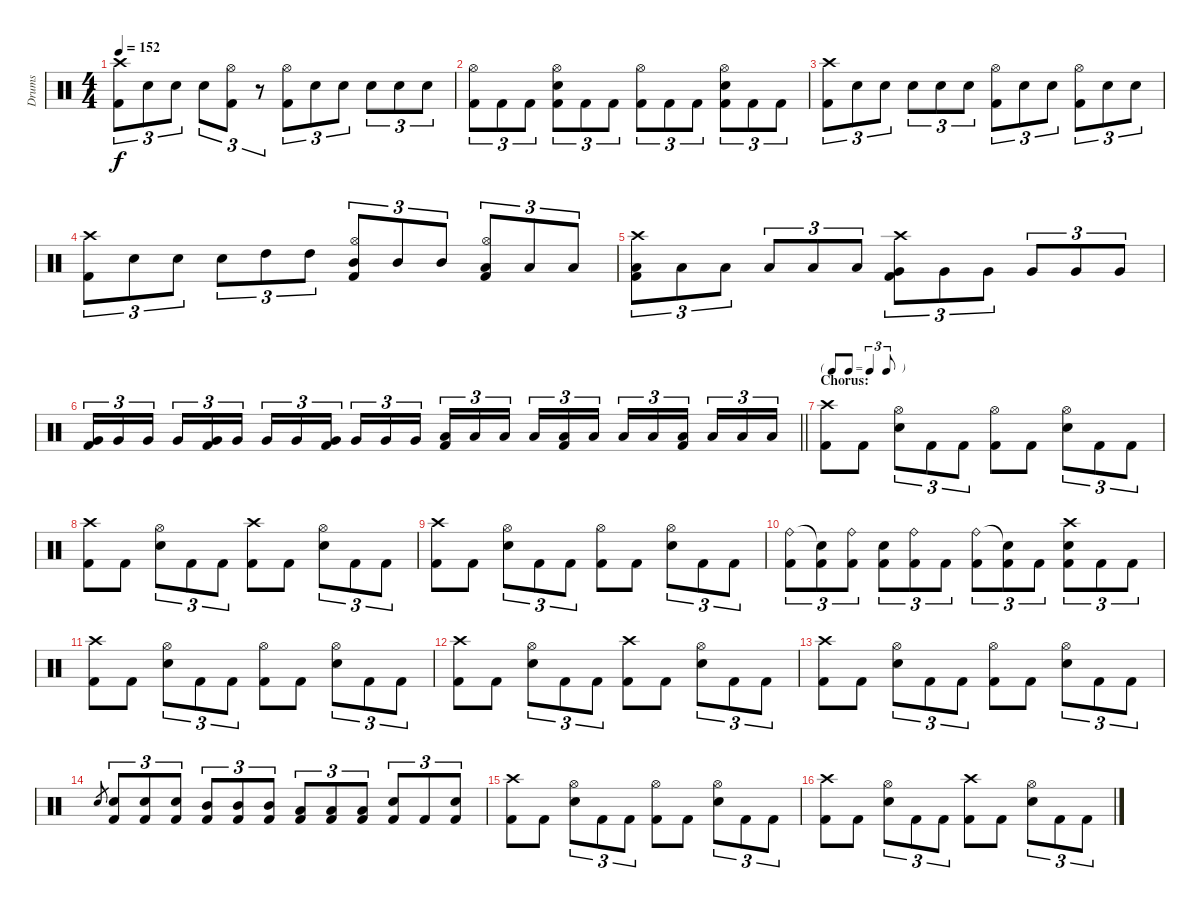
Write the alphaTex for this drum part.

\track ("Drums" "Drums") {instrument percussion}
\staff {score}
\articulation defaults
\ts (4 4)
\tempo 152
\clef neutral
\ks c
("Crash high (hit)" "Kick (hit) 2").8{tu (3 2) dy f} "Snare (hit) 2".8{tu (3 2)} "Snare (hit) 2".8{tu (3 2)} "Snare (hit) 2".8{tu (3 2)} ("Hi-Hat (open)" "Kick (hit) 2").8{tu (3 2)} r.8{tu (3 2)} ("Hi-Hat (open)" "Kick (hit) 2").8{tu (3 2)} "Snare (hit) 2".8{tu (3 2)} "Snare (hit) 2".8{tu (3 2)} "Snare (hit) 2".8{tu (3 2)} "Snare (hit) 2".8{tu (3 2)} "Snare (hit) 2".8{tu (3 2)} |
("Hi-Hat (open)" "Kick (hit) 2").8{tu (3 2)} "Kick (hit) 2".8{tu (3 2)} "Kick (hit) 2".8{tu (3 2)} ("Hi-Hat (open)" "Snare (hit) 2" "Kick (hit) 2").8{tu (3 2)} "Kick (hit) 2".8{tu (3 2)} "Kick (hit) 2".8{tu (3 2)} ("Hi-Hat (open)" "Kick (hit) 2").8{tu (3 2)} "Kick (hit) 2".8{tu (3 2)} "Kick (hit) 2".8{tu (3 2)} ("Hi-Hat (open)" "Snare (hit) 2" "Kick (hit) 2").8{tu (3 2)} "Kick (hit) 2".8{tu (3 2)} "Kick (hit) 2".8{tu (3 2)} |
("Crash high (hit)" "Kick (hit) 2").8{tu (3 2)} "Snare (hit) 2".8{tu (3 2)} "Snare (hit) 2".8{tu (3 2)} "Snare (hit) 2".8{tu (3 2)} "Snare (hit) 2".8{tu (3 2)} "Snare (hit) 2".8{tu (3 2)} ("Hi-Hat (open)" "Kick (hit) 2").8{tu (3 2)} "Snare (hit) 2".8{tu (3 2)} "Snare (hit) 2".8{tu (3 2)} ("Hi-Hat (open)" "Kick (hit) 2").8{tu (3 2)} "Snare (hit) 2".8{tu (3 2)} "Snare (hit) 2".8{tu (3 2)} |
("Crash high (hit)" "Kick (hit) 2").8{tu (3 2)} "Snare (hit) 2".8{tu (3 2)} "Snare (hit) 2".8{tu (3 2)} "Snare (hit) 2".8{tu (3 2)} "High Tom (hit)".8{tu (3 2)} "High Tom (hit)".8{tu (3 2)} ("Hi-Hat (open)" "Mid Tom (hit)" "Kick (hit) 2").8{tu (3 2)} "Mid Tom (hit)".8{tu (3 2)} "Mid Tom (hit)".8{tu (3 2)} ("Hi-Hat (open)" "Low Tom (hit)" "Kick (hit) 2").8{tu (3 2)} "Low Tom (hit)".8{tu (3 2)} "Low Tom (hit)".8{tu (3 2)} |
("Crash high (hit)" "Low Tom (hit)" "Kick (hit) 2").8{tu (3 2)} "Low Tom (hit)".8{tu (3 2)} "Low Tom (hit)".8{tu (3 2)} "Low Tom (hit)".8{tu (3 2)} "Low Tom (hit)".8{tu (3 2)} "Low Tom (hit)".8{tu (3 2)} ("Crash high (hit)" "Very Low Tom (hit)" "Kick (hit) 2").8{tu (3 2)} "Very Low Tom (hit)".8{tu (3 2)} "Very Low Tom (hit)".8{tu (3 2)} "Very Low Tom (hit)".8{tu (3 2)} "Very Low Tom (hit)".8{tu (3 2)} "Very Low Tom (hit)".8{tu (3 2)} |
\barLineRight lightlight
("Very Low Tom (hit)" "Kick (hit) 2").16{tu (3 2)} "Very Low Tom (hit)".16{tu (3 2)} "Very Low Tom (hit)".16{tu (3 2) beam splitsecondary} "Very Low Tom (hit)".16{tu (3 2)} ("Very Low Tom (hit)" "Kick (hit) 2").16{tu (3 2)} "Very Low Tom (hit)".16{tu (3 2)} "Very Low Tom (hit)".16{tu (3 2)} "Very Low Tom (hit)".16{tu (3 2)} ("Very Low Tom (hit)" "Kick (hit) 2").16{tu (3 2) beam splitsecondary} "Very Low Tom (hit)".16{tu (3 2)} "Very Low Tom (hit)".16{tu (3 2)} "Very Low Tom (hit)".16{tu (3 2)} ("Low Floor Tom (hit)" "Kick (hit) 2").16{tu (3 2)} "Low Floor Tom (hit)".16{tu (3 2)} "Low Floor Tom (hit)".16{tu (3 2) beam splitsecondary} "Low Floor Tom (hit)".16{tu (3 2)} ("Low Floor Tom (hit)" "Kick (hit) 2").16{tu (3 2)} "Low Floor Tom (hit)".16{tu (3 2)} "Low Floor Tom (hit)".16{tu (3 2)} "Low Floor Tom (hit)".16{tu (3 2)} ("Low Floor Tom (hit)" "Kick (hit) 2").16{tu (3 2) beam splitsecondary} "Low Floor Tom (hit)".16{tu (3 2)} "Low Floor Tom (hit)".16{tu (3 2)} "Low Floor Tom (hit)".16{tu (3 2)} |
\tf triplet8th
\section ("" "Chorus:")
("Crash high (hit)" "Kick (hit) 2").8 "Kick (hit) 2".8 ("Hi-Hat (open)" "Snare (hit) 2").8{tu (3 2)} "Kick (hit) 2".8{tu (3 2)} "Kick (hit) 2".8{tu (3 2)} ("Hi-Hat (open)" "Kick (hit) 2").8 "Kick (hit) 2".8 ("Hi-Hat (open)" "Snare (hit) 2").8{tu (3 2)} "Kick (hit) 2".8{tu (3 2)} "Kick (hit) 2".8{tu (3 2)} |
("Crash high (hit)" "Kick (hit) 2").8 "Kick (hit) 2".8 ("Hi-Hat (open)" "Snare (hit) 2").8{tu (3 2)} "Kick (hit) 2".8{tu (3 2)} "Kick (hit) 2".8{tu (3 2)} ("Crash high (hit)" "Kick (hit) 2").8 "Kick (hit) 2".8 ("Hi-Hat (open)" "Snare (hit) 2").8{tu (3 2)} "Kick (hit) 2".8{tu (3 2)} "Kick (hit) 2".8{tu (3 2)} |
("Crash high (hit)" "Kick (hit) 2").8 "Kick (hit) 2".8 ("Hi-Hat (open)" "Snare (hit) 2").8{tu (3 2)} "Kick (hit) 2".8{tu (3 2)} "Kick (hit) 2".8{tu (3 2)} ("Hi-Hat (open)" "Kick (hit) 2").8 "Kick (hit) 2".8 ("Hi-Hat (open)" "Snare (hit) 2").8{tu (3 2)} "Kick (hit) 2".8{tu (3 2)} "Kick (hit) 2".8{tu (3 2)} |
("Ride (bell)" "Kick (hit) 2").8{tu (3 2)} ("Snare (hit)"{t} "Kick (hit) 2").8{tu (3 2)} ("Ride (bell)" "Kick (hit) 2").8{tu (3 2)} ("Snare (hit) 2" "Kick (hit) 2").8{tu (3 2)} ("Ride (bell)" "Kick (hit) 2").8{tu (3 2)} "Kick (hit) 2".8{tu (3 2)} ("Ride (bell)" "Kick (hit) 2").8{tu (3 2)} ("Snare (hit)"{t} "Kick (hit) 2").8{tu (3 2)} "Kick (hit) 2".8{tu (3 2)} ("Crash high (hit)" "Snare (hit) 2" "Kick (hit) 2").8{tu (3 2)} "Kick (hit) 2".8{tu (3 2)} "Kick (hit) 2".8{tu (3 2)} |
("Crash high (hit)" "Kick (hit) 2").8 "Kick (hit) 2".8 ("Hi-Hat (open)" "Snare (hit) 2").8{tu (3 2)} "Kick (hit) 2".8{tu (3 2)} "Kick (hit) 2".8{tu (3 2)} ("Hi-Hat (open)" "Kick (hit) 2").8 "Kick (hit) 2".8 ("Hi-Hat (open)" "Snare (hit) 2").8{tu (3 2)} "Kick (hit) 2".8{tu (3 2)} "Kick (hit) 2".8{tu (3 2)} |
("Crash high (hit)" "Kick (hit) 2").8 "Kick (hit) 2".8 ("Hi-Hat (open)" "Snare (hit) 2").8{tu (3 2)} "Kick (hit) 2".8{tu (3 2)} "Kick (hit) 2".8{tu (3 2)} ("Crash high (hit)" "Kick (hit) 2").8 "Kick (hit) 2".8 ("Hi-Hat (open)" "Snare (hit) 2").8{tu (3 2)} "Kick (hit) 2".8{tu (3 2)} "Kick (hit) 2".8{tu (3 2)} |
("Crash high (hit)" "Kick (hit) 2").8 "Kick (hit) 2".8 ("Hi-Hat (open)" "Snare (hit) 2").8{tu (3 2)} "Kick (hit) 2".8{tu (3 2)} "Kick (hit) 2".8{tu (3 2)} ("Hi-Hat (open)" "Kick (hit) 2").8 "Kick (hit) 2".8 ("Hi-Hat (open)" "Snare (hit) 2").8{tu (3 2)} "Kick (hit) 2".8{tu (3 2)} "Kick (hit) 2".8{tu (3 2)} |
"Snare (hit) 2".8{gr} ("Snare (hit) 2" "Kick (hit) 2").8{tu (3 2)} ("Snare (hit) 2" "Kick (hit) 2").8{tu (3 2)} ("Snare (hit) 2" "Kick (hit) 2").8{tu (3 2)} ("Mid Tom (hit)" "Kick (hit) 2").8{tu (3 2)} ("Mid Tom (hit)" "Kick (hit) 2").8{tu (3 2)} ("Mid Tom (hit)" "Kick (hit) 2").8{tu (3 2)} ("Low Tom (hit)" "Kick (hit) 2").8{tu (3 2)} ("Low Tom (hit)" "Kick (hit) 2").8{tu (3 2)} ("Low Tom (hit)" "Kick (hit) 2").8{tu (3 2)} ("Snare (hit) 2" "Kick (hit) 2").8{tu (3 2)} "Kick (hit) 2".8{tu (3 2)} ("Snare (hit) 2" "Kick (hit) 2").8{tu (3 2)} |
("Crash high (hit)" "Kick (hit) 2").8 "Kick (hit) 2".8 ("Hi-Hat (open)" "Snare (hit) 2").8{tu (3 2)} "Kick (hit) 2".8{tu (3 2)} "Kick (hit) 2".8{tu (3 2)} ("Hi-Hat (open)" "Kick (hit) 2").8 "Kick (hit) 2".8 ("Hi-Hat (open)" "Snare (hit) 2").8{tu (3 2)} "Kick (hit) 2".8{tu (3 2)} "Kick (hit) 2".8{tu (3 2)} |
("Crash high (hit)" "Kick (hit) 2").8 "Kick (hit) 2".8 ("Hi-Hat (open)" "Snare (hit) 2").8{tu (3 2)} "Kick (hit) 2".8{tu (3 2)} "Kick (hit) 2".8{tu (3 2)} ("Crash high (hit)" "Kick (hit) 2").8 "Kick (hit) 2".8 ("Hi-Hat (open)" "Snare (hit) 2").8{tu (3 2)} "Kick (hit) 2".8{tu (3 2)} "Kick (hit) 2".8{tu (3 2)}
